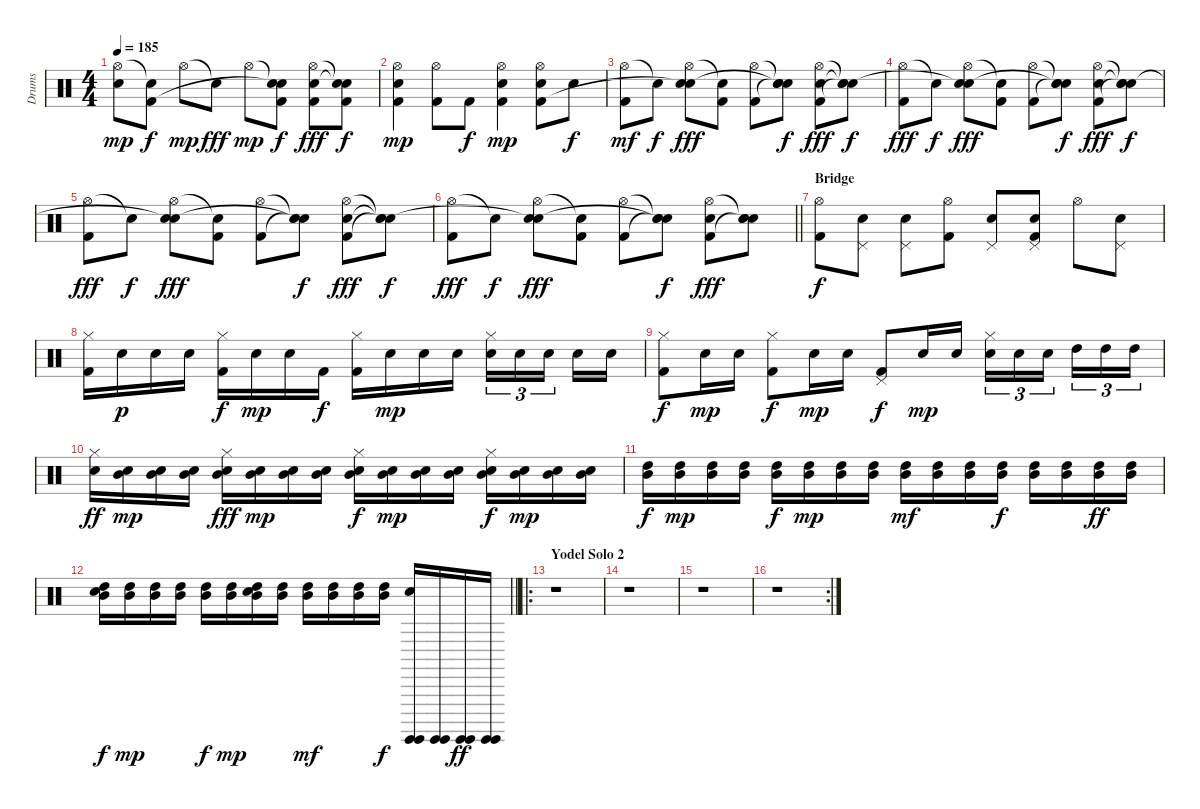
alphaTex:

\track ("Drums" "Drums") {instrument percussion}
\staff {score}
\articulation defaults
\ts (4 4)
\tempo 185
\clef neutral
\ks c
("Hi-Hat (open)" "Electric Snare (hit)").8{dy mp} ("Snare (hit)"{t} "Kick (hit) 2").8{dy f} "Hi-Hat (open)".8{dy mp} "Snare (hit)"{t}.8{dy fff} "Hi-Hat (open)".8{dy mp} ("Snare (hit)"{t} "Snare (hit)"{t} "Kick (hit) 2").8{dy f} ("Hi-Hat (open)" "Electric Snare (hit)" "Kick (hit) 2").8{dy fff} ("Snare (hit)"{t} "Snare (hit)"{t} "Kick (hit) 2").8{dy f} |
("Hi-Hat (open)" "Electric Snare (hit)" "Kick (hit) 2").4{dy mp} ("Hi-Hat (open)" "Kick (hit) 2").8 "Kick (hit) 2".8{dy f} ("Hi-Hat (open)" "Electric Snare (hit)" "Kick (hit) 2").4{dy mp} ("Hi-Hat (open)" "Electric Snare (hit)" "Kick (hit) 2").8 "Electric Snare (hit)".8{dy f} |
("Hi-Hat (open)" "Kick (hit) 2").8{dy mf} "Snare (hit)"{t}.8{dy f} ("Hi-Hat (open)" "Electric Snare (hit)" "Snare (hit)"{t}).8{dy fff} ("Snare (hit)"{t} "Kick (hit) 2").8 ("Hi-Hat (open)" "Kick (hit) 2").8 ("Snare (hit)"{t} "Snare (hit)"{t} "Snare (hit)"{t}).8{dy f} ("Hi-Hat (open)" "Electric Snare (hit)" "Kick (hit) 2").8{dy fff} ("Snare (hit)"{t} "Snare (hit)"{t} "Snare (hit)"{t}).8{dy f} |
("Hi-Hat (open)" "Kick (hit) 2").8{dy fff} "Snare (hit)"{t}.8{dy f} ("Hi-Hat (open)" "Electric Snare (hit)" "Snare (hit)"{t}).8{dy fff} ("Snare (hit)"{t} "Kick (hit) 2").8 ("Hi-Hat (open)" "Kick (hit) 2").8 ("Snare (hit)"{t} "Snare (hit)"{t} "Snare (hit)"{t}).8{dy f} ("Hi-Hat (open)" "Electric Snare (hit)" "Kick (hit) 2").8{dy fff} ("Snare (hit)"{t} "Snare (hit)"{t} "Snare (hit)"{t}).8{dy f} |
("Hi-Hat (open)" "Kick (hit) 2").8{dy fff} "Snare (hit)"{t}.8{dy f} ("Hi-Hat (open)" "Electric Snare (hit)" "Snare (hit)"{t}).8{dy fff} ("Snare (hit)"{t} "Kick (hit) 2").8 ("Hi-Hat (open)" "Kick (hit) 2").8 ("Snare (hit)"{t} "Snare (hit)"{t} "Snare (hit)"{t}).8{dy f} ("Hi-Hat (open)" "Electric Snare (hit)" "Kick (hit) 2").8{dy fff} ("Snare (hit)"{t} "Snare (hit)"{t} "Snare (hit)"{t}).8{dy f} |
\barLineRight lightlight
("Hi-Hat (open)" "Kick (hit) 2").8{dy fff} "Snare (hit)"{t}.8{dy f} ("Hi-Hat (open)" "Electric Snare (hit)" "Snare (hit)"{t}).8{dy fff} ("Snare (hit)"{t} "Kick (hit) 2").8 ("Hi-Hat (open)" "Kick (hit) 2").8 ("Snare (hit)"{t} "Snare (hit)"{t} "Snare (hit)"{t}).8{dy f} ("Hi-Hat (open)" "Electric Snare (hit)" "Kick (hit) 2").8{dy fff} ("Snare (hit)"{t} "Electric Snare (hit)" "Snare (hit)"{t}).8 |
\section ("" "Bridge")
("Hi-Hat (open)" "Kick (hit) 2").8{dy f} ("Pedal Hi-Hat (hit)" "Electric Snare (hit)").8 ("Pedal Hi-Hat (hit)" "Electric Snare (hit)").8 ("Hi-Hat (open)" "Kick (hit) 2").8 ("Pedal Hi-Hat (hit)" "Electric Snare (hit)").8 ("Pedal Hi-Hat (hit)" "Electric Snare (hit)" "Kick (hit) 2").8 "Hi-Hat (open)".8 ("Pedal Hi-Hat (hit)" "Electric Snare (hit)").8 |
("Hi-Hat (closed)" "Kick (hit) 2").16 "Electric Snare (hit)".16{dy p} "Electric Snare (hit)".16 "Electric Snare (hit)".16 ("Hi-Hat (closed)" "Kick (hit) 2").16{dy f} "Electric Snare (hit)".16{dy mp} "Electric Snare (hit)".16 "Kick (hit) 2".16{dy f} ("Hi-Hat (closed)" "Kick (hit) 2").16 "Electric Snare (hit)".16{dy mp} "Electric Snare (hit)".16 "Electric Snare (hit)".16 ("Hi-Hat (closed)" "Electric Snare (hit)").16{tu (3 2)} "Electric Snare (hit)".16{tu (3 2)} "Electric Snare (hit)".16{tu (3 2) beam splitsecondary} "Electric Snare (hit)".16 "Electric Snare (hit)".16 |
("Hi-Hat (closed)" "Kick (hit) 2").8{dy f} "Electric Snare (hit)".16{dy mp} "Electric Snare (hit)".16 ("Hi-Hat (closed)" "Kick (hit) 2").8{dy f} "Electric Snare (hit)".16{dy mp} "Electric Snare (hit)".16 ("Pedal Hi-Hat (hit)" "Kick (hit) 2").8{dy f} "Electric Snare (hit)".16{dy mp} "Electric Snare (hit)".16 ("Hi-Hat (closed)" "Electric Snare (hit)").16{tu (3 2)} "Electric Snare (hit)".16{tu (3 2)} "Electric Snare (hit)".16{tu (3 2) beam splitsecondary} "High Tom (hit)".16{tu (3 2)} "High Tom (hit)".16{tu (3 2)} "High Tom (hit)".16{tu (3 2)} |
("Hi-Hat (closed)" "Electric Snare (hit)").16{dy ff} ("Electric Snare (hit)" "Mid Tom (hit)").16{dy mp} ("Electric Snare (hit)" "Mid Tom (hit)").16 ("Electric Snare (hit)" "Mid Tom (hit)").16 ("Hi-Hat (closed)" "Electric Snare (hit)" "Mid Tom (hit)").16{dy fff} ("Electric Snare (hit)" "Mid Tom (hit)").16{dy mp} ("Electric Snare (hit)" "Mid Tom (hit)").16 ("Electric Snare (hit)" "Mid Tom (hit)").16 ("Hi-Hat (closed)" "Electric Snare (hit)" "Mid Tom (hit)").16{dy f} ("Electric Snare (hit)" "Mid Tom (hit)").16{dy mp} ("Electric Snare (hit)" "Mid Tom (hit)").16 ("Electric Snare (hit)" "Mid Tom (hit)").16 ("Hi-Hat (closed)" "Electric Snare (hit)" "Mid Tom (hit)").16{dy f} ("Electric Snare (hit)" "Mid Tom (hit)").16{dy mp} ("Electric Snare (hit)" "Mid Tom (hit)").16 ("Electric Snare (hit)" "Mid Tom (hit)").16 |
("Mid Tom (hit)" "High Tom (hit)").16{dy f} ("Mid Tom (hit)" "High Tom (hit)").16{dy mp} ("Mid Tom (hit)" "High Tom (hit)").16 ("Mid Tom (hit)" "High Tom (hit)").16 ("Mid Tom (hit)" "High Tom (hit)").16{dy f} ("Mid Tom (hit)" "High Tom (hit)").16{dy mp} ("Mid Tom (hit)" "High Tom (hit)").16 ("Mid Tom (hit)" "High Tom (hit)").16 ("Mid Tom (hit)" "High Tom (hit)").16{dy mf} ("Mid Tom (hit)" "High Tom (hit)").16 ("Mid Tom (hit)" "High Tom (hit)").16 ("Mid Tom (hit)" "High Tom (hit)").16{dy f} ("Mid Tom (hit)" "High Tom (hit)").16 ("Mid Tom (hit)" "High Tom (hit)").16 ("Mid Tom (hit)" "High Tom (hit)").16{dy ff} ("Mid Tom (hit)" "High Tom (hit)").16 |
\barLineRight lightlight
("Electric Snare (hit)" "Mid Tom (hit)" "High Tom (hit)").16{dy f} ("Mid Tom (hit)" "High Tom (hit)").16{dy mp} ("Mid Tom (hit)" "High Tom (hit)").16 ("Mid Tom (hit)" "High Tom (hit)").16 ("Mid Tom (hit)" "High Tom (hit)").16{dy f} ("Mid Tom (hit)" "High Tom (hit)").16{dy mp} ("Electric Snare (hit)" "Mid Tom (hit)" "High Tom (hit)").16 ("Mid Tom (hit)" "High Tom (hit)").16 ("Mid Tom (hit)" "High Tom (hit)").16{dy mf} ("Mid Tom (hit)" "High Tom (hit)").16 ("Mid Tom (hit)" "High Tom (hit)").16 ("Mid Tom (hit)" "High Tom (hit)").16{dy f} ("Electric Snare (hit)" "Surdo (hit)" "Surdo (hit)").16 ("Surdo (hit)" "Surdo (hit)").16 ("Surdo (hit)" "Surdo (hit)").16{dy ff} ("Surdo (hit)" "Surdo (hit)").16 |
\ro
\section ("" "Yodel Solo 2")
r.1 |
r.1 |
r.1 |
\rc 2
r.1
